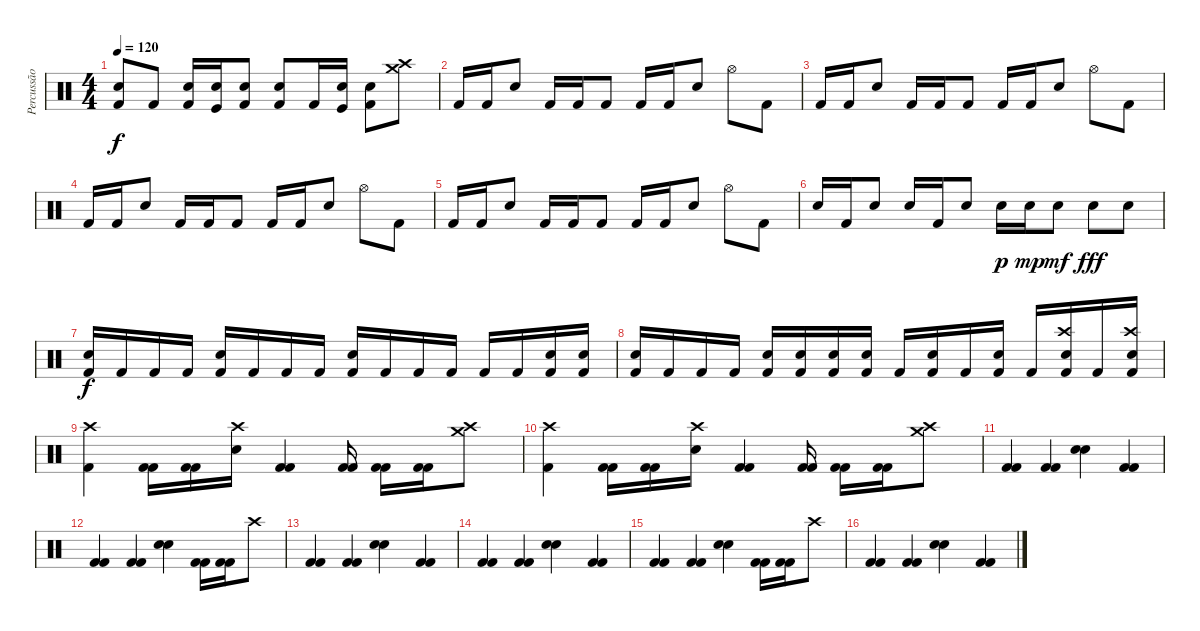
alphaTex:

\track ("Percussão" "Percussão") {instrument percussion}
\staff {score}
\articulation defaults
\ts (4 4)
\tempo 120
\clef neutral
\ks c
("Kick (hit) 2" "Electric Snare (hit)").8{dy f} "Kick (hit) 2".8 ("Kick (hit) 2" "Electric Snare (hit)").16 ("Kick (hit)" "Electric Snare (hit)").16 ("Kick (hit) 2" "Electric Snare (hit)").8 ("Kick (hit) 2" "Electric Snare (hit)").8 "Kick (hit) 2".16 ("Kick (hit)" "Electric Snare (hit)").16 ("Kick (hit) 2" "Electric Snare (hit)").8 ("Crash medium (hit)" "Crash high (hit)").8 |
"Kick (hit) 2".16 "Kick (hit) 2".16 "Snare (hit) 2".8 "Kick (hit) 2".16 "Kick (hit) 2".16 "Kick (hit) 2".8 "Kick (hit) 2".16 "Kick (hit) 2".16 "Snare (hit) 2".8 "Hi-Hat (open)".8 "Kick (hit) 2".8 |
"Kick (hit) 2".16 "Kick (hit) 2".16 "Snare (hit) 2".8 "Kick (hit) 2".16 "Kick (hit) 2".16 "Kick (hit) 2".8 "Kick (hit) 2".16 "Kick (hit) 2".16 "Snare (hit) 2".8 "Hi-Hat (open)".8 "Kick (hit) 2".8 |
"Kick (hit) 2".16 "Kick (hit) 2".16 "Snare (hit) 2".8 "Kick (hit) 2".16 "Kick (hit) 2".16 "Kick (hit) 2".8 "Kick (hit) 2".16 "Kick (hit) 2".16 "Snare (hit) 2".8 "Hi-Hat (open)".8 "Kick (hit) 2".8 |
"Kick (hit) 2".16 "Kick (hit) 2".16 "Snare (hit) 2".8 "Kick (hit) 2".16 "Kick (hit) 2".16 "Kick (hit) 2".8 "Kick (hit) 2".16 "Kick (hit) 2".16 "Snare (hit) 2".8 "Hi-Hat (open)".8 "Kick (hit) 2".8 |
"Electric Snare (hit)".16 "Kick (hit) 2".16 "Snare (hit) 2".8 "Electric Snare (hit)".16 "Kick (hit) 2".16 "Electric Snare (hit)".8 "Electric Snare (hit)".16{dy p} "Electric Snare (hit)".16{dy mp} "Electric Snare (hit)".8{dy mf} "Electric Snare (hit)".8{dy fff} "Snare (hit) 2".8 |
("Snare (hit) 2" "Kick (hit) 2").16{dy f} "Kick (hit) 2".16 "Kick (hit) 2".16 "Kick (hit) 2".16 ("Snare (hit) 2" "Kick (hit) 2").16 "Kick (hit) 2".16 "Kick (hit) 2".16 "Kick (hit) 2".16 ("Snare (hit) 2" "Kick (hit) 2").16 "Kick (hit) 2".16 "Kick (hit) 2".16 "Kick (hit) 2".16 "Kick (hit) 2".16 "Kick (hit) 2".16 ("Snare (hit) 2" "Kick (hit) 2").16 ("Snare (hit) 2" "Kick (hit) 2").16 |
("Snare (hit) 2" "Kick (hit) 2").16 "Kick (hit) 2".16 "Kick (hit) 2".16 "Kick (hit) 2".16 ("Snare (hit) 2" "Kick (hit) 2").16 ("Snare (hit) 2" "Kick (hit) 2").16 ("Snare (hit) 2" "Kick (hit) 2").16 ("Snare (hit) 2" "Kick (hit) 2").16 "Kick (hit) 2".16 ("Snare (hit) 2" "Kick (hit) 2").16 "Kick (hit) 2".16 ("Snare (hit) 2" "Kick (hit) 2").16 "Kick (hit) 2".16 ("Snare (hit) 2" "Kick (hit) 2" "Crash high (hit)").16 "Kick (hit) 2".16 ("Snare (hit) 2" "Kick (hit) 2" "Crash high (hit)").16 |
("Kick (hit) 2" "Crash high (hit)").4 ("Kick (hit) 2" "Kick (hit) 2").16 ("Kick (hit) 2" "Kick (hit) 2").16 ("Snare (hit) 2" "Crash high (hit)").16 ("Kick (hit) 2" "Kick (hit) 2").4 ("Kick (hit) 2" "Kick (hit) 2").16 ("Kick (hit) 2" "Kick (hit) 2").16 ("Kick (hit) 2" "Kick (hit) 2").16 ("Crash high (hit)" "Crash medium (hit)").8 |
("Kick (hit) 2" "Crash high (hit)").4 ("Kick (hit) 2" "Kick (hit) 2").16 ("Kick (hit) 2" "Kick (hit) 2").16 ("Snare (hit) 2" "Crash high (hit)").16 ("Kick (hit) 2" "Kick (hit) 2").4 ("Kick (hit) 2" "Kick (hit) 2").16 ("Kick (hit) 2" "Kick (hit) 2").16 ("Kick (hit) 2" "Kick (hit) 2").16 ("Crash high (hit)" "Crash medium (hit)").8 |
("Kick (hit) 2" "Kick (hit) 2").4 ("Kick (hit) 2" "Kick (hit) 2").4 ("Snare (hit) 2" "Snare (hit) 2").4 ("Kick (hit) 2" "Kick (hit) 2").4 |
("Kick (hit) 2" "Kick (hit) 2").4 ("Kick (hit) 2" "Kick (hit) 2").4 ("Snare (hit) 2" "Snare (hit) 2").4 ("Kick (hit) 2" "Kick (hit) 2").16 ("Kick (hit) 2" "Kick (hit) 2").16 "Crash high (hit)".8 |
("Kick (hit) 2" "Kick (hit) 2").4 ("Kick (hit) 2" "Kick (hit) 2").4 ("Snare (hit) 2" "Snare (hit) 2").4 ("Kick (hit) 2" "Kick (hit) 2").4 |
("Kick (hit) 2" "Kick (hit) 2").4 ("Kick (hit) 2" "Kick (hit) 2").4 ("Snare (hit) 2" "Snare (hit) 2").4 ("Kick (hit) 2" "Kick (hit) 2").4 |
("Kick (hit) 2" "Kick (hit) 2").4 ("Kick (hit) 2" "Kick (hit) 2").4 ("Snare (hit) 2" "Snare (hit) 2").4 ("Kick (hit) 2" "Kick (hit) 2").16 ("Kick (hit) 2" "Kick (hit) 2").16 "Crash high (hit)".8 |
("Kick (hit) 2" "Kick (hit) 2").4 ("Kick (hit) 2" "Kick (hit) 2").4 ("Snare (hit) 2" "Snare (hit) 2").4 ("Kick (hit) 2" "Kick (hit) 2").4
